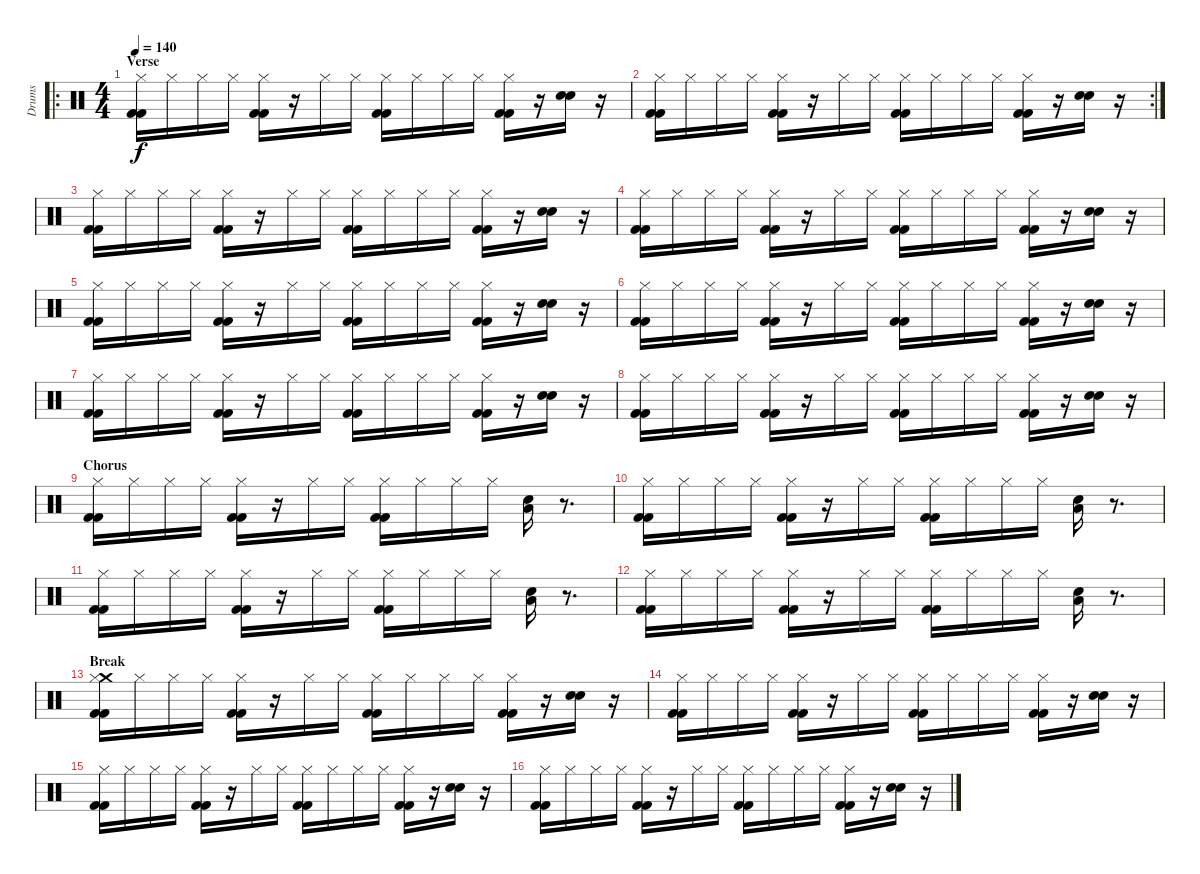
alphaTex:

\track ("Drums" "Drums") {instrument percussion}
\staff {score}
\articulation defaults
\ro
\ts (4 4)
\section ("" "Verse ")
\tempo 140
\clef neutral
\ks c
("Hi-Hat (closed)" "Kick (hit) 2" "Kick (hit) 2").16{dy f} "Hi-Hat (closed)".16 "Hi-Hat (closed)".16 "Hi-Hat (closed)".16 ("Hi-Hat (closed)" "Kick (hit) 2" "Kick (hit) 2").16 r.16 "Hi-Hat (closed)".16 "Hi-Hat (closed)".16 ("Hi-Hat (closed)" "Kick (hit) 2" "Kick (hit) 2").16 "Hi-Hat (closed)".16 "Hi-Hat (closed)".16 "Hi-Hat (closed)".16 ("Hi-Hat (closed)" "Kick (hit) 2" "Kick (hit) 2").16 r.16 ("Snare (hit) 2" "Snare (hit) 2").16 r.16 |
\rc 2
("Hi-Hat (closed)" "Kick (hit) 2" "Kick (hit) 2").16 "Hi-Hat (closed)".16 "Hi-Hat (closed)".16 "Hi-Hat (closed)".16 ("Hi-Hat (closed)" "Kick (hit) 2" "Kick (hit) 2").16 r.16 "Hi-Hat (closed)".16 "Hi-Hat (closed)".16 ("Hi-Hat (closed)" "Kick (hit) 2" "Kick (hit) 2").16 "Hi-Hat (closed)".16 "Hi-Hat (closed)".16 "Hi-Hat (closed)".16 ("Hi-Hat (closed)" "Kick (hit) 2" "Kick (hit) 2").16 r.16 ("Snare (hit) 2" "Snare (hit) 2").16 r.16 |
("Hi-Hat (closed)" "Kick (hit) 2" "Kick (hit) 2").16 "Hi-Hat (closed)".16 "Hi-Hat (closed)".16 "Hi-Hat (closed)".16 ("Hi-Hat (closed)" "Kick (hit) 2" "Kick (hit) 2").16 r.16 "Hi-Hat (closed)".16 "Hi-Hat (closed)".16 ("Hi-Hat (closed)" "Kick (hit) 2" "Kick (hit) 2").16 "Hi-Hat (closed)".16 "Hi-Hat (closed)".16 "Hi-Hat (closed)".16 ("Hi-Hat (closed)" "Kick (hit) 2" "Kick (hit) 2").16 r.16 ("Snare (hit) 2" "Snare (hit) 2").16 r.16 |
("Hi-Hat (closed)" "Kick (hit) 2" "Kick (hit) 2").16 "Hi-Hat (closed)".16 "Hi-Hat (closed)".16 "Hi-Hat (closed)".16 ("Hi-Hat (closed)" "Kick (hit) 2" "Kick (hit) 2").16 r.16 "Hi-Hat (closed)".16 "Hi-Hat (closed)".16 ("Hi-Hat (closed)" "Kick (hit) 2" "Kick (hit) 2").16 "Hi-Hat (closed)".16 "Hi-Hat (closed)".16 "Hi-Hat (closed)".16 ("Hi-Hat (closed)" "Kick (hit) 2" "Kick (hit) 2").16 r.16 ("Snare (hit) 2" "Snare (hit) 2").16 r.16 |
("Hi-Hat (closed)" "Kick (hit) 2" "Kick (hit) 2").16 "Hi-Hat (closed)".16 "Hi-Hat (closed)".16 "Hi-Hat (closed)".16 ("Hi-Hat (closed)" "Kick (hit) 2" "Kick (hit) 2").16 r.16 "Hi-Hat (closed)".16 "Hi-Hat (closed)".16 ("Hi-Hat (closed)" "Kick (hit) 2" "Kick (hit) 2").16 "Hi-Hat (closed)".16 "Hi-Hat (closed)".16 "Hi-Hat (closed)".16 ("Hi-Hat (closed)" "Kick (hit) 2" "Kick (hit) 2").16 r.16 ("Snare (hit) 2" "Snare (hit) 2").16 r.16 |
("Hi-Hat (closed)" "Kick (hit) 2" "Kick (hit) 2").16 "Hi-Hat (closed)".16 "Hi-Hat (closed)".16 "Hi-Hat (closed)".16 ("Hi-Hat (closed)" "Kick (hit) 2" "Kick (hit) 2").16 r.16 "Hi-Hat (closed)".16 "Hi-Hat (closed)".16 ("Hi-Hat (closed)" "Kick (hit) 2" "Kick (hit) 2").16 "Hi-Hat (closed)".16 "Hi-Hat (closed)".16 "Hi-Hat (closed)".16 ("Hi-Hat (closed)" "Kick (hit) 2" "Kick (hit) 2").16 r.16 ("Snare (hit) 2" "Snare (hit) 2").16 r.16 |
("Hi-Hat (closed)" "Kick (hit) 2" "Kick (hit) 2").16 "Hi-Hat (closed)".16 "Hi-Hat (closed)".16 "Hi-Hat (closed)".16 ("Hi-Hat (closed)" "Kick (hit) 2" "Kick (hit) 2").16 r.16 "Hi-Hat (closed)".16 "Hi-Hat (closed)".16 ("Hi-Hat (closed)" "Kick (hit) 2" "Kick (hit) 2").16 "Hi-Hat (closed)".16 "Hi-Hat (closed)".16 "Hi-Hat (closed)".16 ("Hi-Hat (closed)" "Kick (hit) 2" "Kick (hit) 2").16 r.16 ("Snare (hit) 2" "Snare (hit) 2").16 r.16 |
("Hi-Hat (closed)" "Kick (hit) 2" "Kick (hit) 2").16 "Hi-Hat (closed)".16 "Hi-Hat (closed)".16 "Hi-Hat (closed)".16 ("Hi-Hat (closed)" "Kick (hit) 2" "Kick (hit) 2").16 r.16 "Hi-Hat (closed)".16 "Hi-Hat (closed)".16 ("Hi-Hat (closed)" "Kick (hit) 2" "Kick (hit) 2").16 "Hi-Hat (closed)".16 "Hi-Hat (closed)".16 "Hi-Hat (closed)".16 ("Hi-Hat (closed)" "Kick (hit) 2" "Kick (hit) 2").16 r.16 ("Snare (hit) 2" "Snare (hit) 2").16 r.16 |
\section ("" "Chorus")
("Hi-Hat (closed)" "Kick (hit) 2" "Kick (hit) 2").16 "Hi-Hat (closed)".16 "Hi-Hat (closed)".16 "Hi-Hat (closed)".16 ("Hi-Hat (closed)" "Kick (hit) 2" "Kick (hit) 2").16 r.16 "Hi-Hat (closed)".16 "Hi-Hat (closed)".16 ("Hi-Hat (closed)" "Kick (hit) 2" "Kick (hit) 2").16 "Hi-Hat (closed)".16 "Hi-Hat (closed)".16 "Hi-Hat (closed)".16 ("Snare (hit) 2" "Low Floor Tom (hit)").16 r.8{d} |
("Hi-Hat (closed)" "Kick (hit) 2" "Kick (hit) 2").16 "Hi-Hat (closed)".16 "Hi-Hat (closed)".16 "Hi-Hat (closed)".16 ("Hi-Hat (closed)" "Kick (hit) 2" "Kick (hit) 2").16 r.16 "Hi-Hat (closed)".16 "Hi-Hat (closed)".16 ("Hi-Hat (closed)" "Kick (hit) 2" "Kick (hit) 2").16 "Hi-Hat (closed)".16 "Hi-Hat (closed)".16 "Hi-Hat (closed)".16 ("Snare (hit) 2" "Low Floor Tom (hit)").16 r.8{d} |
("Hi-Hat (closed)" "Kick (hit) 2" "Kick (hit) 2").16 "Hi-Hat (closed)".16 "Hi-Hat (closed)".16 "Hi-Hat (closed)".16 ("Hi-Hat (closed)" "Kick (hit) 2" "Kick (hit) 2").16 r.16 "Hi-Hat (closed)".16 "Hi-Hat (closed)".16 ("Hi-Hat (closed)" "Kick (hit) 2" "Kick (hit) 2").16 "Hi-Hat (closed)".16 "Hi-Hat (closed)".16 "Hi-Hat (closed)".16 ("Snare (hit) 2" "Low Floor Tom (hit)").16 r.8{d} |
("Hi-Hat (closed)" "Kick (hit) 2" "Kick (hit) 2").16 "Hi-Hat (closed)".16 "Hi-Hat (closed)".16 "Hi-Hat (closed)".16 ("Hi-Hat (closed)" "Kick (hit) 2" "Kick (hit) 2").16 r.16 "Hi-Hat (closed)".16 "Hi-Hat (closed)".16 ("Hi-Hat (closed)" "Kick (hit) 2" "Kick (hit) 2").16 "Hi-Hat (closed)".16 "Hi-Hat (closed)".16 "Hi-Hat (closed)".16 ("Snare (hit) 2" "Low Floor Tom (hit)").16 r.8{d} |
\section ("" "Break")
("Crash medium (hit)" "Hi-Hat (closed)" "Kick (hit) 2" "Kick (hit) 2").16 "Hi-Hat (closed)".16 "Hi-Hat (closed)".16 "Hi-Hat (closed)".16 ("Hi-Hat (closed)" "Kick (hit) 2" "Kick (hit) 2").16 r.16 "Hi-Hat (closed)".16 "Hi-Hat (closed)".16 ("Hi-Hat (closed)" "Kick (hit) 2" "Kick (hit) 2").16 "Hi-Hat (closed)".16 "Hi-Hat (closed)".16 "Hi-Hat (closed)".16 ("Hi-Hat (closed)" "Kick (hit) 2" "Kick (hit) 2").16 r.16 ("Snare (hit) 2" "Snare (hit) 2").16 r.16 |
("Hi-Hat (closed)" "Kick (hit) 2" "Kick (hit) 2").16 "Hi-Hat (closed)".16 "Hi-Hat (closed)".16 "Hi-Hat (closed)".16 ("Hi-Hat (closed)" "Kick (hit) 2" "Kick (hit) 2").16 r.16 "Hi-Hat (closed)".16 "Hi-Hat (closed)".16 ("Hi-Hat (closed)" "Kick (hit) 2" "Kick (hit) 2").16 "Hi-Hat (closed)".16 "Hi-Hat (closed)".16 "Hi-Hat (closed)".16 ("Hi-Hat (closed)" "Kick (hit) 2" "Kick (hit) 2").16 r.16 ("Snare (hit) 2" "Snare (hit) 2").16 r.16 |
("Hi-Hat (closed)" "Kick (hit) 2" "Kick (hit) 2").16 "Hi-Hat (closed)".16 "Hi-Hat (closed)".16 "Hi-Hat (closed)".16 ("Hi-Hat (closed)" "Kick (hit) 2" "Kick (hit) 2").16 r.16 "Hi-Hat (closed)".16 "Hi-Hat (closed)".16 ("Hi-Hat (closed)" "Kick (hit) 2" "Kick (hit) 2").16 "Hi-Hat (closed)".16 "Hi-Hat (closed)".16 "Hi-Hat (closed)".16 ("Hi-Hat (closed)" "Kick (hit) 2" "Kick (hit) 2").16 r.16 ("Snare (hit) 2" "Snare (hit) 2").16 r.16 |
("Hi-Hat (closed)" "Kick (hit) 2" "Kick (hit) 2").16 "Hi-Hat (closed)".16 "Hi-Hat (closed)".16 "Hi-Hat (closed)".16 ("Hi-Hat (closed)" "Kick (hit) 2" "Kick (hit) 2").16 r.16 "Hi-Hat (closed)".16 "Hi-Hat (closed)".16 ("Hi-Hat (closed)" "Kick (hit) 2" "Kick (hit) 2").16 "Hi-Hat (closed)".16 "Hi-Hat (closed)".16 "Hi-Hat (closed)".16 ("Hi-Hat (closed)" "Kick (hit) 2" "Kick (hit) 2").16 r.16 ("Snare (hit) 2" "Snare (hit) 2").16 r.16
